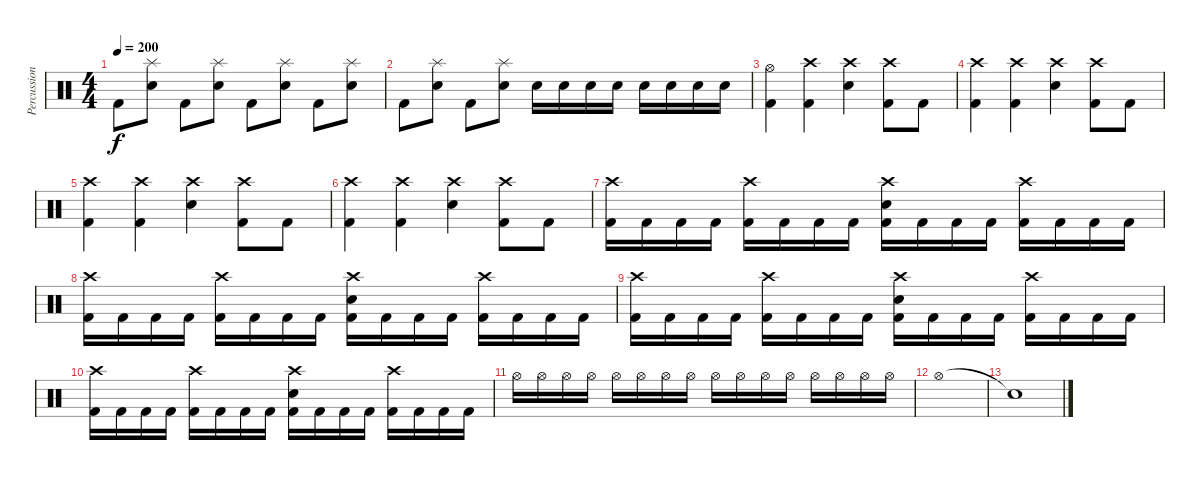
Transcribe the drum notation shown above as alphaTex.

\track ("Percussion" "Percussion") {instrument percussion}
\staff {score}
\articulation defaults
\ts (4 4)
\tempo 200
\clef neutral
\ks c "Kick (hit) 2".8{dy f}
("Splash (hit)" "Electric Snare (hit)").8 "Kick (hit) 2".8 ("Splash (hit)" "Electric Snare (hit)").8 "Kick (hit) 2".8 ("Splash (hit)" "Electric Snare (hit)").8 "Kick (hit) 2".8 ("Splash (hit)" "Electric Snare (hit)").8 |
"Kick (hit) 2".8 ("Splash (hit)" "Electric Snare (hit)").8 "Kick (hit) 2".8 ("Splash (hit)" "Electric Snare (hit)").8 "Electric Snare (hit)".16 "Electric Snare (hit)".16 "Electric Snare (hit)".16 "Electric Snare (hit)".16 "Electric Snare (hit)".16 "Electric Snare (hit)".16 "Electric Snare (hit)".16 "Electric Snare (hit)".16 |
("Hi-Hat (open)" "Kick (hit) 2").4 ("Crash high (hit)" "Kick (hit) 2").4 ("Crash high (hit)" "Electric Snare (hit)").4 ("Crash high (hit)" "Kick (hit) 2").8 "Kick (hit) 2".8 |
("Crash high (hit)" "Kick (hit) 2").4 ("Crash high (hit)" "Kick (hit) 2").4 ("Crash high (hit)" "Electric Snare (hit)").4 ("Crash high (hit)" "Kick (hit) 2").8 "Kick (hit) 2".8 |
("Crash high (hit)" "Kick (hit) 2").4 ("Crash high (hit)" "Kick (hit) 2").4 ("Crash high (hit)" "Electric Snare (hit)").4 ("Crash high (hit)" "Kick (hit) 2").8 "Kick (hit) 2".8 |
("Crash high (hit)" "Kick (hit) 2").4 ("Crash high (hit)" "Kick (hit) 2").4 ("Crash high (hit)" "Electric Snare (hit)").4 ("Crash high (hit)" "Kick (hit) 2").8 "Kick (hit) 2".8 |
("Crash high (hit)" "Kick (hit) 2").16 "Kick (hit) 2".16 "Kick (hit) 2".16 "Kick (hit) 2".16 ("Crash high (hit)" "Kick (hit) 2").16 "Kick (hit) 2".16 "Kick (hit) 2".16 "Kick (hit) 2".16 ("Crash high (hit)" "Electric Snare (hit)" "Kick (hit) 2").16 "Kick (hit) 2".16 "Kick (hit) 2".16 "Kick (hit) 2".16 ("Crash high (hit)" "Kick (hit) 2").16 "Kick (hit) 2".16 "Kick (hit) 2".16 "Kick (hit) 2".16 |
("Crash high (hit)" "Kick (hit) 2").16 "Kick (hit) 2".16 "Kick (hit) 2".16 "Kick (hit) 2".16 ("Crash high (hit)" "Kick (hit) 2").16 "Kick (hit) 2".16 "Kick (hit) 2".16 "Kick (hit) 2".16 ("Crash high (hit)" "Electric Snare (hit)" "Kick (hit) 2").16 "Kick (hit) 2".16 "Kick (hit) 2".16 "Kick (hit) 2".16 ("Crash high (hit)" "Kick (hit) 2").16 "Kick (hit) 2".16 "Kick (hit) 2".16 "Kick (hit) 2".16 |
("Crash high (hit)" "Kick (hit) 2").16 "Kick (hit) 2".16 "Kick (hit) 2".16 "Kick (hit) 2".16 ("Crash high (hit)" "Kick (hit) 2").16 "Kick (hit) 2".16 "Kick (hit) 2".16 "Kick (hit) 2".16 ("Crash high (hit)" "Electric Snare (hit)" "Kick (hit) 2").16 "Kick (hit) 2".16 "Kick (hit) 2".16 "Kick (hit) 2".16 ("Crash high (hit)" "Kick (hit) 2").16 "Kick (hit) 2".16 "Kick (hit) 2".16 "Kick (hit) 2".16 |
("Crash high (hit)" "Kick (hit) 2").16 "Kick (hit) 2".16 "Kick (hit) 2".16 "Kick (hit) 2".16 ("Crash high (hit)" "Kick (hit) 2").16 "Kick (hit) 2".16 "Kick (hit) 2".16 "Kick (hit) 2".16 ("Crash high (hit)" "Electric Snare (hit)" "Kick (hit) 2").16 "Kick (hit) 2".16 "Kick (hit) 2".16 "Kick (hit) 2".16 ("Crash high (hit)" "Kick (hit) 2").16 "Kick (hit) 2".16 "Kick (hit) 2".16 "Kick (hit) 2".16 |
"Hi-Hat (open)".16 "Hi-Hat (open)".16 "Hi-Hat (open)".16 "Hi-Hat (open)".16 "Hi-Hat (open)".16 "Hi-Hat (open)".16 "Hi-Hat (open)".16 "Hi-Hat (open)".16 "Hi-Hat (open)".16 "Hi-Hat (open)".16 "Hi-Hat (open)".16 "Hi-Hat (open)".16 "Hi-Hat (open)".16 "Hi-Hat (open)".16 "Hi-Hat (open)".16 "Hi-Hat (open)".16 |
"Hi-Hat (open)".1 |
"Snare (hit)"{t}.1
